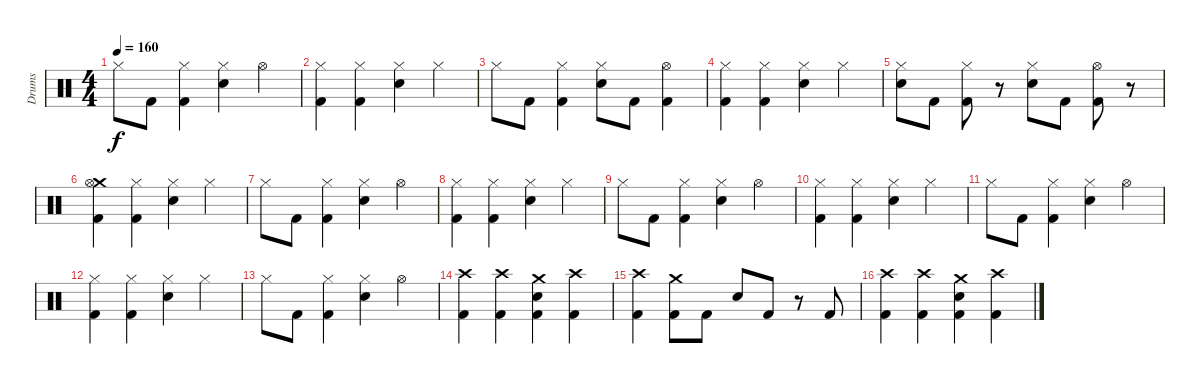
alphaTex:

\track ("Drums" "Drums") {instrument percussion}
\staff {score}
\articulation defaults
\ts (4 4)
\tempo 160
\clef neutral
\ks c "Hi-Hat (closed)".8{dy f} "Kick (hit) 2".8
("Hi-Hat (closed)" "Kick (hit) 2").4 ("Snare (hit) 2" "Hi-Hat (closed)").4 "Hi-Hat (open)".4 |
("Hi-Hat (closed)" "Kick (hit) 2").4 ("Hi-Hat (closed)" "Kick (hit) 2").4 ("Snare (hit) 2" "Hi-Hat (closed)").4 "Hi-Hat (closed)".4 |
"Hi-Hat (closed)".8 "Kick (hit) 2".8 ("Hi-Hat (closed)" "Kick (hit) 2").4 ("Snare (hit) 2" "Hi-Hat (closed)").8 "Kick (hit) 2".8 ("Hi-Hat (open)" "Kick (hit) 2").4 |
("Hi-Hat (closed)" "Kick (hit) 2").4 ("Hi-Hat (closed)" "Kick (hit) 2").4 ("Snare (hit) 2" "Hi-Hat (closed)").4 "Hi-Hat (closed)".4 |
("Snare (hit) 2" "Hi-Hat (closed)").8 "Kick (hit) 2".8 ("Hi-Hat (closed)" "Kick (hit) 2").8 r.8 ("Snare (hit) 2" "Hi-Hat (closed)").8 "Kick (hit) 2".8 ("Hi-Hat (open)" "Kick (hit) 2").8 r.8 |
("Crash medium (hit)" "Hi-Hat (open)" "Kick (hit) 2").4 ("Hi-Hat (closed)" "Kick (hit) 2").4 ("Snare (hit) 2" "Hi-Hat (closed)").4 "Hi-Hat (closed)".4 |
"Hi-Hat (closed)".8 "Kick (hit) 2".8 ("Hi-Hat (closed)" "Kick (hit) 2").4 ("Snare (hit) 2" "Hi-Hat (closed)").4 "Hi-Hat (open)".4 |
("Hi-Hat (closed)" "Kick (hit) 2").4 ("Hi-Hat (closed)" "Kick (hit) 2").4 ("Snare (hit) 2" "Hi-Hat (closed)").4 "Hi-Hat (closed)".4 |
"Hi-Hat (closed)".8 "Kick (hit) 2".8 ("Hi-Hat (closed)" "Kick (hit) 2").4 ("Snare (hit) 2" "Hi-Hat (closed)").4 "Hi-Hat (open)".4 |
("Hi-Hat (closed)" "Kick (hit) 2").4 ("Hi-Hat (closed)" "Kick (hit) 2").4 ("Snare (hit) 2" "Hi-Hat (closed)").4 "Hi-Hat (closed)".4 |
"Hi-Hat (closed)".8 "Kick (hit) 2".8 ("Hi-Hat (closed)" "Kick (hit) 2").4 ("Snare (hit) 2" "Hi-Hat (closed)").4 "Hi-Hat (open)".4 |
("Hi-Hat (closed)" "Kick (hit) 2").4 ("Hi-Hat (closed)" "Kick (hit) 2").4 ("Snare (hit) 2" "Hi-Hat (closed)").4 "Hi-Hat (closed)".4 |
"Hi-Hat (closed)".8 "Kick (hit) 2".8 ("Hi-Hat (closed)" "Kick (hit) 2").4 ("Snare (hit) 2" "Hi-Hat (closed)").4 "Hi-Hat (open)".4 |
("Crash high (hit)" "Kick (hit) 2").4 ("Crash high (hit)" "Kick (hit) 2").4 ("Crash medium (hit)" "Snare (hit) 2" "Kick (hit) 2").4 ("Crash high (hit)" "Kick (hit) 2").4 |
("Crash high (hit)" "Kick (hit) 2").4 ("Crash medium (hit)" "Kick (hit) 2").8 "Kick (hit) 2".8 "Snare (hit) 2".8 "Kick (hit) 2".8 r.8 "Kick (hit) 2".8 |
("Crash high (hit)" "Kick (hit) 2").4 ("Crash high (hit)" "Kick (hit) 2").4 ("Crash medium (hit)" "Snare (hit) 2" "Kick (hit) 2").4 ("Crash high (hit)" "Kick (hit) 2").4
